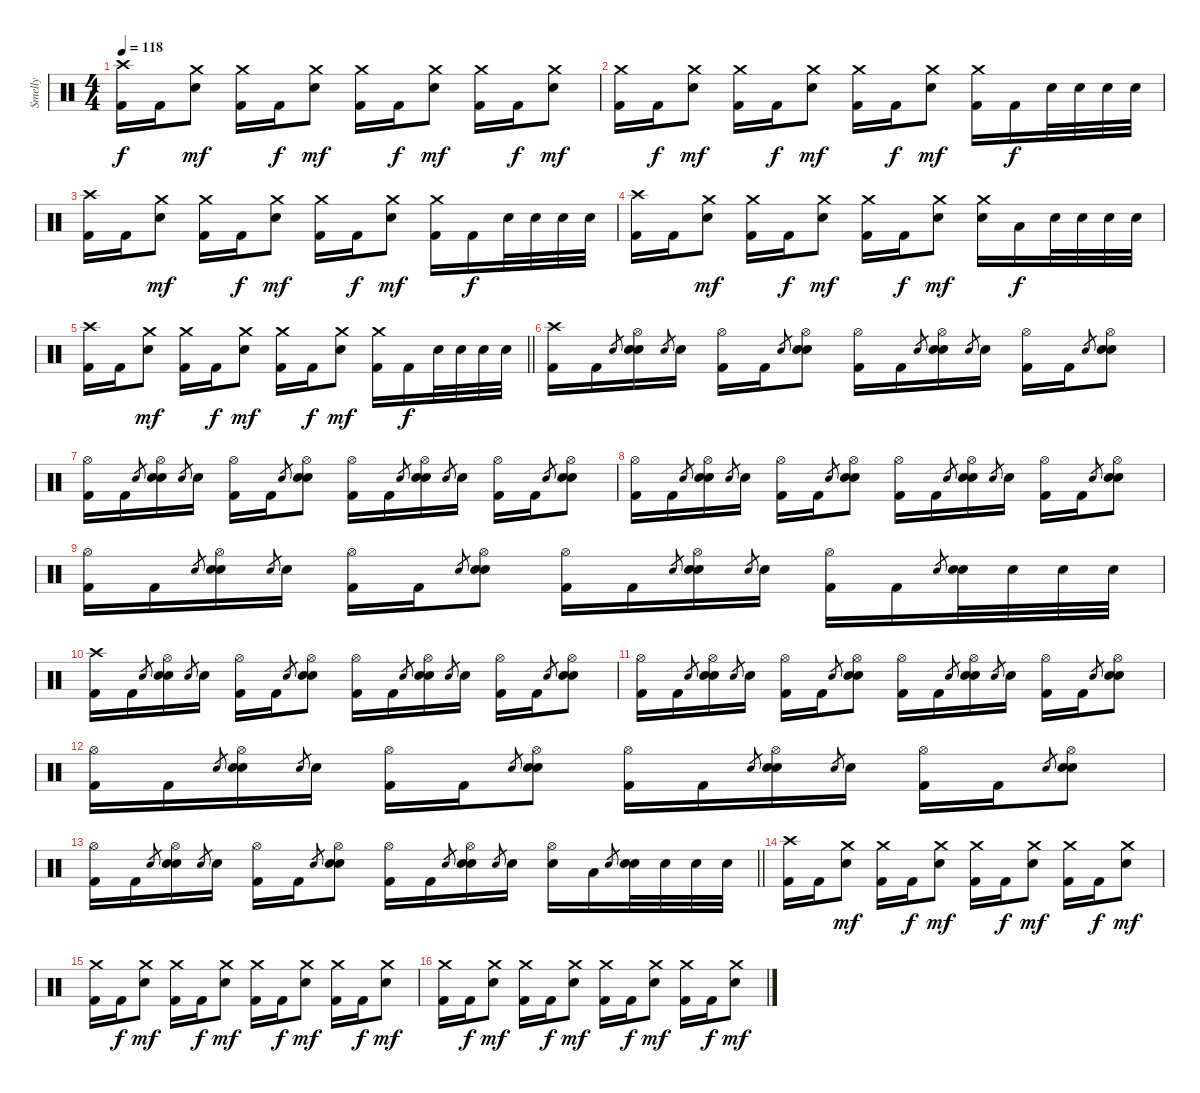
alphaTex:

\track ("Smelly" "Smelly") {instrument percussion}
\staff {score}
\articulation defaults
\ts (4 4)
\section ("" "")
\tempo 118
\clef neutral
\ks c
("Crash high (hit)" "Kick (hit) 2").16{dy f} "Kick (hit) 2".16 ("Crash medium (hit)" "Electric Snare (hit)").8{dy mf} ("Crash medium (hit)" "Kick (hit) 2").16 "Kick (hit) 2".16{dy f} ("Crash medium (hit)" "Electric Snare (hit)").8{dy mf} ("Crash medium (hit)" "Kick (hit) 2").16 "Kick (hit) 2".16{dy f} ("Crash medium (hit)" "Electric Snare (hit)").8{dy mf} ("Crash medium (hit)" "Kick (hit) 2").16 "Kick (hit) 2".16{dy f} ("Crash medium (hit)" "Electric Snare (hit)").8{dy mf} |
("Crash medium (hit)" "Kick (hit) 2").16 "Kick (hit) 2".16{dy f} ("Crash medium (hit)" "Electric Snare (hit)").8{dy mf} ("Crash medium (hit)" "Kick (hit) 2").16 "Kick (hit) 2".16{dy f} ("Crash medium (hit)" "Electric Snare (hit)").8{dy mf} ("Crash medium (hit)" "Kick (hit) 2").16 "Kick (hit) 2".16{dy f} ("Crash medium (hit)" "Electric Snare (hit)").8{dy mf} ("Crash medium (hit)" "Kick (hit) 2").16 "Kick (hit) 2".16{dy f} "Electric Snare (hit)".32 "Electric Snare (hit)".32 "Electric Snare (hit)".32 "Electric Snare (hit)".32 |
("Crash high (hit)" "Kick (hit) 2").16 "Kick (hit) 2".16 ("Crash medium (hit)" "Electric Snare (hit)").8{dy mf} ("Crash medium (hit)" "Kick (hit) 2").16 "Kick (hit) 2".16{dy f} ("Crash medium (hit)" "Electric Snare (hit)").8{dy mf} ("Crash medium (hit)" "Kick (hit) 2").16 "Kick (hit) 2".16{dy f} ("Crash medium (hit)" "Electric Snare (hit)").8{dy mf} ("Crash medium (hit)" "Kick (hit) 2").16 "Kick (hit) 2".16{dy f} "Electric Snare (hit)".32 "Electric Snare (hit)".32 "Electric Snare (hit)".32 "Electric Snare (hit)".32 |
("Crash high (hit)" "Kick (hit) 2").16 "Kick (hit) 2".16 ("Crash medium (hit)" "Electric Snare (hit)").8{dy mf} ("Crash medium (hit)" "Kick (hit) 2").16 "Kick (hit) 2".16{dy f} ("Crash medium (hit)" "Electric Snare (hit)").8{dy mf} ("Crash medium (hit)" "Kick (hit) 2").16 "Kick (hit) 2".16{dy f} ("Crash medium (hit)" "Electric Snare (hit)").8{dy mf} ("Crash medium (hit)" "Electric Snare (hit)").16 "Low Tom (hit)".16{dy f} "Electric Snare (hit)".32 "Electric Snare (hit)".32 "Electric Snare (hit)".32 "Electric Snare (hit)".32 |
\barLineRight lightlight
("Crash high (hit)" "Kick (hit) 2").16 "Kick (hit) 2".16 ("Crash medium (hit)" "Electric Snare (hit)").8{dy mf} ("Crash medium (hit)" "Kick (hit) 2").16 "Kick (hit) 2".16{dy f} ("Crash medium (hit)" "Electric Snare (hit)").8{dy mf} ("Crash medium (hit)" "Kick (hit) 2").16 "Kick (hit) 2".16{dy f} ("Crash medium (hit)" "Electric Snare (hit)").8{dy mf} ("Crash medium (hit)" "Kick (hit) 2").16 "Kick (hit) 2".16{dy f} "Electric Snare (hit)".32 "Electric Snare (hit)".32 "Electric Snare (hit)".32 "Electric Snare (hit)".32 |
\section ("" "")
("Crash high (hit)" "Kick (hit) 2").16 "Kick (hit) 2".16 "Hand Clap (hit)".8{gr} ("Hi-Hat (open)" "Hand Clap (hit)" "Electric Snare (hit)").16 "Hand Clap (hit)".8{gr} "Hand Clap (hit)".16 ("Hi-Hat (open)" "Kick (hit) 2").16 "Kick (hit) 2".16 "Hand Clap (hit)".8{gr} ("Hi-Hat (open)" "Hand Clap (hit)" "Electric Snare (hit)").8 ("Hi-Hat (open)" "Kick (hit) 2").16 "Kick (hit) 2".16 "Hand Clap (hit)".8{gr} ("Hi-Hat (open)" "Hand Clap (hit)" "Electric Snare (hit)").16 "Hand Clap (hit)".8{gr} "Hand Clap (hit)".16 ("Hi-Hat (open)" "Kick (hit) 2").16 "Kick (hit) 2".16 "Hand Clap (hit)".8{gr} ("Hi-Hat (open)" "Hand Clap (hit)" "Electric Snare (hit)").8 |
("Hi-Hat (open)" "Kick (hit) 2").16 "Kick (hit) 2".16 "Hand Clap (hit)".8{gr} ("Hi-Hat (open)" "Hand Clap (hit)" "Electric Snare (hit)").16 "Hand Clap (hit)".8{gr} "Hand Clap (hit)".16 ("Hi-Hat (open)" "Kick (hit) 2").16 "Kick (hit) 2".16 "Hand Clap (hit)".8{gr} ("Hi-Hat (open)" "Hand Clap (hit)" "Electric Snare (hit)").8 ("Hi-Hat (open)" "Kick (hit) 2").16 "Kick (hit) 2".16 "Hand Clap (hit)".8{gr} ("Hi-Hat (open)" "Hand Clap (hit)" "Electric Snare (hit)").16 "Hand Clap (hit)".8{gr} "Hand Clap (hit)".16 ("Hi-Hat (open)" "Kick (hit) 2").16 "Kick (hit) 2".16 "Hand Clap (hit)".8{gr} ("Hi-Hat (open)" "Hand Clap (hit)" "Electric Snare (hit)").8 |
("Hi-Hat (open)" "Kick (hit) 2").16 "Kick (hit) 2".16 "Hand Clap (hit)".8{gr} ("Hi-Hat (open)" "Hand Clap (hit)" "Electric Snare (hit)").16 "Hand Clap (hit)".8{gr} "Hand Clap (hit)".16 ("Hi-Hat (open)" "Kick (hit) 2").16 "Kick (hit) 2".16 "Hand Clap (hit)".8{gr} ("Hi-Hat (open)" "Hand Clap (hit)" "Electric Snare (hit)").8 ("Hi-Hat (open)" "Kick (hit) 2").16 "Kick (hit) 2".16 "Hand Clap (hit)".8{gr} ("Hi-Hat (open)" "Hand Clap (hit)" "Electric Snare (hit)").16 "Hand Clap (hit)".8{gr} "Hand Clap (hit)".16 ("Hi-Hat (open)" "Kick (hit) 2").16 "Kick (hit) 2".16 "Hand Clap (hit)".8{gr} ("Hi-Hat (open)" "Hand Clap (hit)" "Electric Snare (hit)").8 |
("Hi-Hat (open)" "Kick (hit) 2").16 "Kick (hit) 2".16 "Hand Clap (hit)".8{gr} ("Hi-Hat (open)" "Hand Clap (hit)" "Electric Snare (hit)").16 "Hand Clap (hit)".8{gr} "Hand Clap (hit)".16 ("Hi-Hat (open)" "Kick (hit) 2").16 "Kick (hit) 2".16 "Hand Clap (hit)".8{gr} ("Hi-Hat (open)" "Hand Clap (hit)" "Electric Snare (hit)").8 ("Hi-Hat (open)" "Kick (hit) 2").16 "Kick (hit) 2".16 "Hand Clap (hit)".8{gr} ("Hi-Hat (open)" "Hand Clap (hit)" "Electric Snare (hit)").16 "Hand Clap (hit)".8{gr} "Hand Clap (hit)".16 ("Hi-Hat (open)" "Kick (hit) 2").16 "Kick (hit) 2".16 "Hand Clap (hit)".8{gr} ("Hand Clap (hit)" "Electric Snare (hit)").32 "Electric Snare (hit)".32 "Electric Snare (hit)".32 "Electric Snare (hit)".32 |
("Crash high (hit)" "Kick (hit) 2").16 "Kick (hit) 2".16 "Hand Clap (hit)".8{gr} ("Hi-Hat (open)" "Hand Clap (hit)" "Electric Snare (hit)").16 "Hand Clap (hit)".8{gr} "Hand Clap (hit)".16 ("Hi-Hat (open)" "Kick (hit) 2").16 "Kick (hit) 2".16 "Hand Clap (hit)".8{gr} ("Hi-Hat (open)" "Hand Clap (hit)" "Electric Snare (hit)").8 ("Hi-Hat (open)" "Kick (hit) 2").16 "Kick (hit) 2".16 "Hand Clap (hit)".8{gr} ("Hi-Hat (open)" "Hand Clap (hit)" "Electric Snare (hit)").16 "Hand Clap (hit)".8{gr} "Hand Clap (hit)".16 ("Hi-Hat (open)" "Kick (hit) 2").16 "Kick (hit) 2".16 "Hand Clap (hit)".8{gr} ("Hi-Hat (open)" "Hand Clap (hit)" "Electric Snare (hit)").8 |
("Hi-Hat (open)" "Kick (hit) 2").16 "Kick (hit) 2".16 "Hand Clap (hit)".8{gr} ("Hi-Hat (open)" "Hand Clap (hit)" "Electric Snare (hit)").16 "Hand Clap (hit)".8{gr} "Hand Clap (hit)".16 ("Hi-Hat (open)" "Kick (hit) 2").16 "Kick (hit) 2".16 "Hand Clap (hit)".8{gr} ("Hi-Hat (open)" "Hand Clap (hit)" "Electric Snare (hit)").8 ("Hi-Hat (open)" "Kick (hit) 2").16 "Kick (hit) 2".16 "Hand Clap (hit)".8{gr} ("Hi-Hat (open)" "Hand Clap (hit)" "Electric Snare (hit)").16 "Hand Clap (hit)".8{gr} "Hand Clap (hit)".16 ("Hi-Hat (open)" "Kick (hit) 2").16 "Kick (hit) 2".16 "Hand Clap (hit)".8{gr} ("Hi-Hat (open)" "Hand Clap (hit)" "Electric Snare (hit)").8 |
("Hi-Hat (open)" "Kick (hit) 2").16 "Kick (hit) 2".16 "Hand Clap (hit)".8{gr} ("Hi-Hat (open)" "Hand Clap (hit)" "Electric Snare (hit)").16 "Hand Clap (hit)".8{gr} "Hand Clap (hit)".16 ("Hi-Hat (open)" "Kick (hit) 2").16 "Kick (hit) 2".16 "Hand Clap (hit)".8{gr} ("Hi-Hat (open)" "Hand Clap (hit)" "Electric Snare (hit)").8 ("Hi-Hat (open)" "Kick (hit) 2").16 "Kick (hit) 2".16 "Hand Clap (hit)".8{gr} ("Hi-Hat (open)" "Hand Clap (hit)" "Electric Snare (hit)").16 "Hand Clap (hit)".8{gr} "Hand Clap (hit)".16 ("Hi-Hat (open)" "Kick (hit) 2").16 "Kick (hit) 2".16 "Hand Clap (hit)".8{gr} ("Hi-Hat (open)" "Hand Clap (hit)" "Electric Snare (hit)").8 |
\barLineRight lightlight
("Hi-Hat (open)" "Kick (hit) 2").16 "Kick (hit) 2".16 "Hand Clap (hit)".8{gr} ("Hi-Hat (open)" "Hand Clap (hit)" "Electric Snare (hit)").16 "Hand Clap (hit)".8{gr} "Hand Clap (hit)".16 ("Hi-Hat (open)" "Kick (hit) 2").16 "Kick (hit) 2".16 "Hand Clap (hit)".8{gr} ("Hi-Hat (open)" "Hand Clap (hit)" "Electric Snare (hit)").8 ("Hi-Hat (open)" "Kick (hit) 2").16 "Kick (hit) 2".16 "Hand Clap (hit)".8{gr} ("Hi-Hat (open)" "Hand Clap (hit)" "Electric Snare (hit)").16 "Hand Clap (hit)".8{gr} "Hand Clap (hit)".16 ("Hi-Hat (open)" "Electric Snare (hit)").16 "Low Tom (hit)".16 "Hand Clap (hit)".8{gr} ("Hand Clap (hit)" "Electric Snare (hit)").32 "Electric Snare (hit)".32 "Electric Snare (hit)".32 "Electric Snare (hit)".32 |
\section ("" "")
("Crash high (hit)" "Kick (hit) 2").16 "Kick (hit) 2".16 ("Crash medium (hit)" "Electric Snare (hit)").8{dy mf} ("Crash medium (hit)" "Kick (hit) 2").16 "Kick (hit) 2".16{dy f} ("Crash medium (hit)" "Electric Snare (hit)").8{dy mf} ("Crash medium (hit)" "Kick (hit) 2").16 "Kick (hit) 2".16{dy f} ("Crash medium (hit)" "Electric Snare (hit)").8{dy mf} ("Crash medium (hit)" "Kick (hit) 2").16 "Kick (hit) 2".16{dy f} ("Crash medium (hit)" "Electric Snare (hit)").8{dy mf} |
("Crash medium (hit)" "Kick (hit) 2").16 "Kick (hit) 2".16{dy f} ("Crash medium (hit)" "Electric Snare (hit)").8{dy mf} ("Crash medium (hit)" "Kick (hit) 2").16 "Kick (hit) 2".16{dy f} ("Crash medium (hit)" "Electric Snare (hit)").8{dy mf} ("Crash medium (hit)" "Kick (hit) 2").16 "Kick (hit) 2".16{dy f} ("Crash medium (hit)" "Electric Snare (hit)").8{dy mf} ("Crash medium (hit)" "Kick (hit) 2").16 "Kick (hit) 2".16{dy f} ("Crash medium (hit)" "Electric Snare (hit)").8{dy mf} |
("Crash medium (hit)" "Kick (hit) 2").16 "Kick (hit) 2".16{dy f} ("Crash medium (hit)" "Electric Snare (hit)").8{dy mf} ("Crash medium (hit)" "Kick (hit) 2").16 "Kick (hit) 2".16{dy f} ("Crash medium (hit)" "Electric Snare (hit)").8{dy mf} ("Crash medium (hit)" "Kick (hit) 2").16 "Kick (hit) 2".16{dy f} ("Crash medium (hit)" "Electric Snare (hit)").8{dy mf} ("Crash medium (hit)" "Kick (hit) 2").16 "Kick (hit) 2".16{dy f} ("Crash medium (hit)" "Electric Snare (hit)").8{dy mf}
